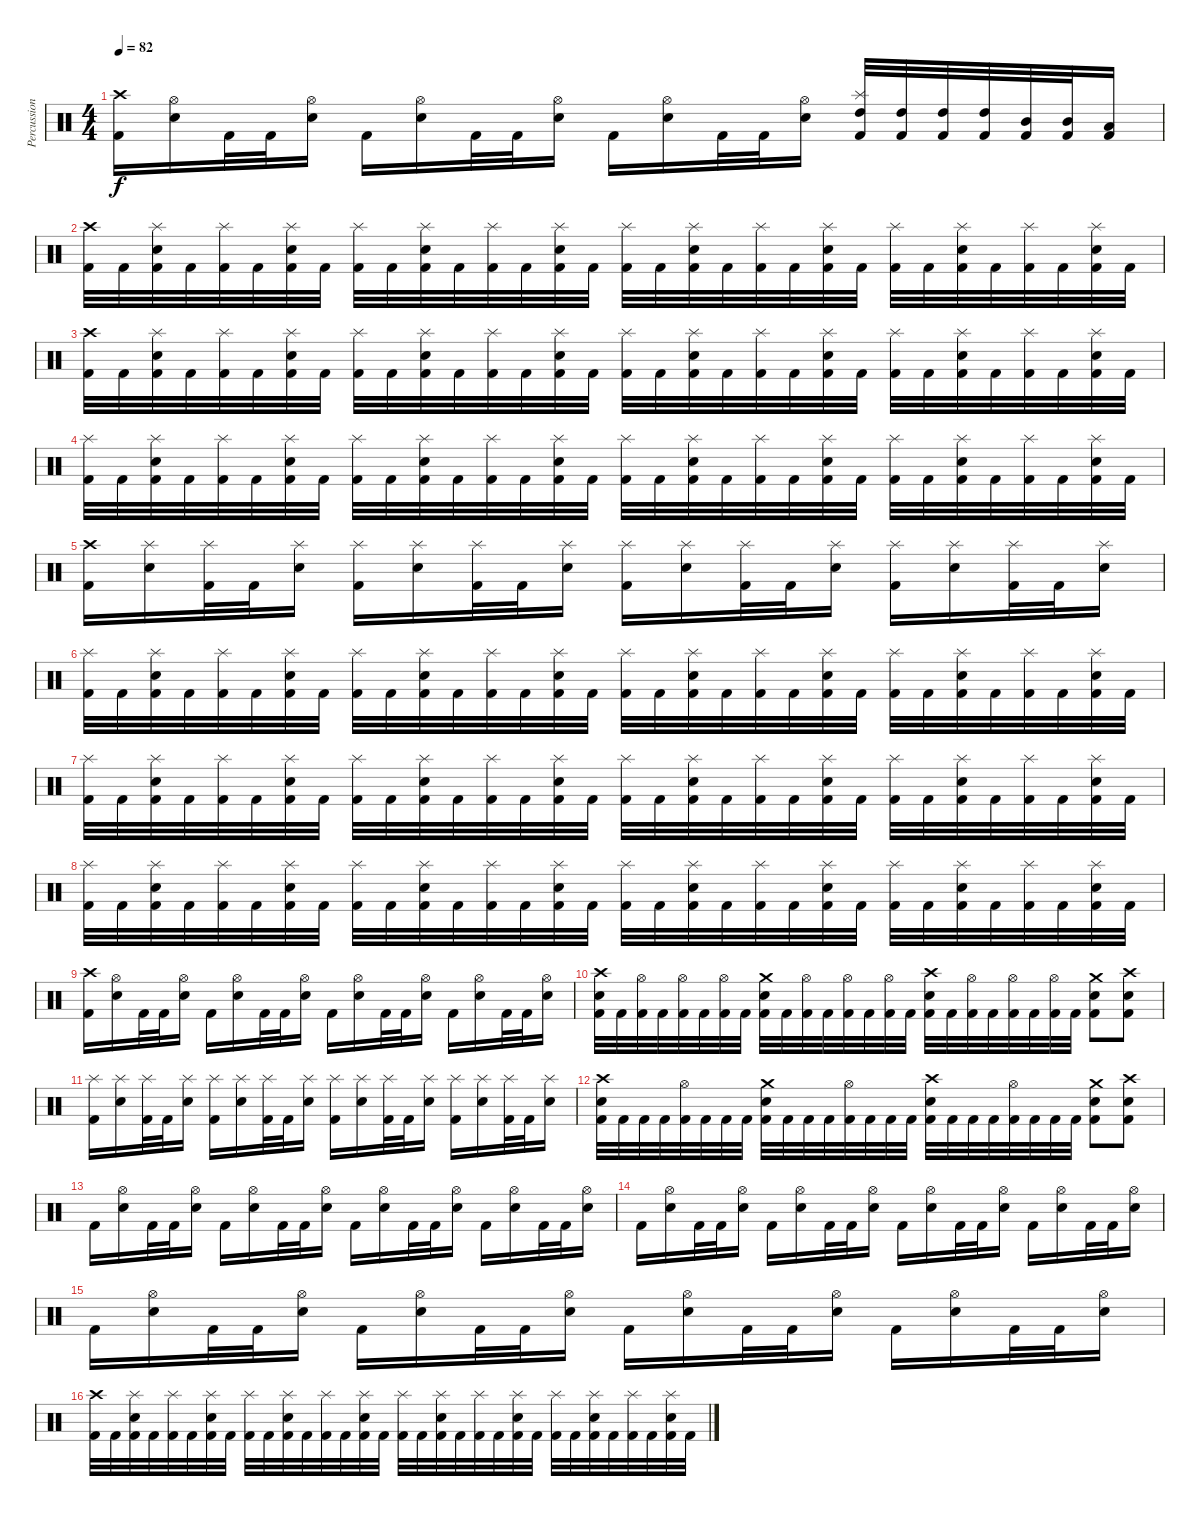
\track ("Percussion" "Percussion") {instrument percussion}
\staff {score}
\articulation defaults
\ts (4 4)
\tempo 82
\clef neutral
\ks c
("Crash high (hit)" "Kick (hit) 2").16{dy f} ("Hi-Hat (open)" "Electric Snare (hit)").16 "Kick (hit) 2".32 "Kick (hit) 2".32 ("Hi-Hat (open)" "Electric Snare (hit)").16 "Kick (hit) 2".16 ("Hi-Hat (open)" "Electric Snare (hit)").16 "Kick (hit) 2".32 "Kick (hit) 2".32 ("Hi-Hat (open)" "Electric Snare (hit)").16 "Kick (hit) 2".16 ("Hi-Hat (open)" "Electric Snare (hit)").16 "Kick (hit) 2".32 "Kick (hit) 2".32 ("Hi-Hat (open)" "Electric Snare (hit)").16 ("Splash (hit)" "High Tom (hit)" "Kick (hit) 2").32 ("High Tom (hit)" "Kick (hit) 2").32 ("High Tom (hit)" "Kick (hit) 2").32 ("High Tom (hit)" "Kick (hit) 2").32 ("Mid Tom (hit)" "Kick (hit) 2").32 ("Mid Tom (hit)" "Kick (hit) 2").32 ("Low Tom (hit)" "Kick (hit) 2").16 |
\section ("" "")
("Crash high (hit)" "Kick (hit) 2").32 "Kick (hit) 2".32 ("Splash (hit)" "Electric Snare (hit)" "Kick (hit) 2").32 "Kick (hit) 2".32 ("Splash (hit)" "Kick (hit) 2").32 "Kick (hit) 2".32 ("Splash (hit)" "Electric Snare (hit)" "Kick (hit) 2").32 "Kick (hit) 2".32 ("Splash (hit)" "Kick (hit) 2").32 "Kick (hit) 2".32 ("Splash (hit)" "Electric Snare (hit)" "Kick (hit) 2").32 "Kick (hit) 2".32 ("Splash (hit)" "Kick (hit) 2").32 "Kick (hit) 2".32 ("Splash (hit)" "Electric Snare (hit)" "Kick (hit) 2").32 "Kick (hit) 2".32 ("Splash (hit)" "Kick (hit) 2").32 "Kick (hit) 2".32 ("Splash (hit)" "Electric Snare (hit)" "Kick (hit) 2").32 "Kick (hit) 2".32 ("Splash (hit)" "Kick (hit) 2").32 "Kick (hit) 2".32 ("Splash (hit)" "Electric Snare (hit)" "Kick (hit) 2").32 "Kick (hit) 2".32 ("Splash (hit)" "Kick (hit) 2").32 "Kick (hit) 2".32 ("Splash (hit)" "Electric Snare (hit)" "Kick (hit) 2").32 "Kick (hit) 2".32 ("Splash (hit)" "Kick (hit) 2").32 "Kick (hit) 2".32 ("Splash (hit)" "Electric Snare (hit)" "Kick (hit) 2").32 "Kick (hit) 2".32 |
("Crash high (hit)" "Kick (hit) 2").32 "Kick (hit) 2".32 ("Splash (hit)" "Electric Snare (hit)" "Kick (hit) 2").32 "Kick (hit) 2".32 ("Splash (hit)" "Kick (hit) 2").32 "Kick (hit) 2".32 ("Splash (hit)" "Electric Snare (hit)" "Kick (hit) 2").32 "Kick (hit) 2".32 ("Splash (hit)" "Kick (hit) 2").32 "Kick (hit) 2".32 ("Splash (hit)" "Electric Snare (hit)" "Kick (hit) 2").32 "Kick (hit) 2".32 ("Splash (hit)" "Kick (hit) 2").32 "Kick (hit) 2".32 ("Splash (hit)" "Electric Snare (hit)" "Kick (hit) 2").32 "Kick (hit) 2".32 ("Splash (hit)" "Kick (hit) 2").32 "Kick (hit) 2".32 ("Splash (hit)" "Electric Snare (hit)" "Kick (hit) 2").32 "Kick (hit) 2".32 ("Splash (hit)" "Kick (hit) 2").32 "Kick (hit) 2".32 ("Splash (hit)" "Electric Snare (hit)" "Kick (hit) 2").32 "Kick (hit) 2".32 ("Splash (hit)" "Kick (hit) 2").32 "Kick (hit) 2".32 ("Splash (hit)" "Electric Snare (hit)" "Kick (hit) 2").32 "Kick (hit) 2".32 ("Splash (hit)" "Kick (hit) 2").32 "Kick (hit) 2".32 ("Splash (hit)" "Electric Snare (hit)" "Kick (hit) 2").32 "Kick (hit) 2".32 |
("Splash (hit)" "Kick (hit) 2").32 "Kick (hit) 2".32 ("Splash (hit)" "Electric Snare (hit)" "Kick (hit) 2").32 "Kick (hit) 2".32 ("Splash (hit)" "Kick (hit) 2").32 "Kick (hit) 2".32 ("Splash (hit)" "Electric Snare (hit)" "Kick (hit) 2").32 "Kick (hit) 2".32 ("Splash (hit)" "Kick (hit) 2").32 "Kick (hit) 2".32 ("Splash (hit)" "Electric Snare (hit)" "Kick (hit) 2").32 "Kick (hit) 2".32 ("Splash (hit)" "Kick (hit) 2").32 "Kick (hit) 2".32 ("Splash (hit)" "Electric Snare (hit)" "Kick (hit) 2").32 "Kick (hit) 2".32 ("Splash (hit)" "Kick (hit) 2").32 "Kick (hit) 2".32 ("Splash (hit)" "Electric Snare (hit)" "Kick (hit) 2").32 "Kick (hit) 2".32 ("Splash (hit)" "Kick (hit) 2").32 "Kick (hit) 2".32 ("Splash (hit)" "Electric Snare (hit)" "Kick (hit) 2").32 "Kick (hit) 2".32 ("Splash (hit)" "Kick (hit) 2").32 "Kick (hit) 2".32 ("Splash (hit)" "Electric Snare (hit)" "Kick (hit) 2").32 "Kick (hit) 2".32 ("Splash (hit)" "Kick (hit) 2").32 "Kick (hit) 2".32 ("Splash (hit)" "Electric Snare (hit)" "Kick (hit) 2").32 "Kick (hit) 2".32 |
("Crash high (hit)" "Kick (hit) 2").16 ("Splash (hit)" "Electric Snare (hit)").16 ("Splash (hit)" "Kick (hit) 2").32 "Kick (hit) 2".32 ("Splash (hit)" "Electric Snare (hit)").16 ("Splash (hit)" "Kick (hit) 2").16 ("Splash (hit)" "Electric Snare (hit)").16 ("Splash (hit)" "Kick (hit) 2").32 "Kick (hit) 2".32 ("Splash (hit)" "Electric Snare (hit)").16 ("Splash (hit)" "Kick (hit) 2").16 ("Splash (hit)" "Electric Snare (hit)").16 ("Splash (hit)" "Kick (hit) 2").32 "Kick (hit) 2".32 ("Splash (hit)" "Electric Snare (hit)").16 ("Splash (hit)" "Kick (hit) 2").16 ("Splash (hit)" "Electric Snare (hit)").16 ("Splash (hit)" "Kick (hit) 2").32 "Kick (hit) 2".32 ("Splash (hit)" "Electric Snare (hit)").16 |
\section ("" "")
("Splash (hit)" "Kick (hit) 2").32 "Kick (hit) 2".32 ("Splash (hit)" "Electric Snare (hit)" "Kick (hit) 2").32 "Kick (hit) 2".32 ("Splash (hit)" "Kick (hit) 2").32 "Kick (hit) 2".32 ("Splash (hit)" "Electric Snare (hit)" "Kick (hit) 2").32 "Kick (hit) 2".32 ("Splash (hit)" "Kick (hit) 2").32 "Kick (hit) 2".32 ("Splash (hit)" "Electric Snare (hit)" "Kick (hit) 2").32 "Kick (hit) 2".32 ("Splash (hit)" "Kick (hit) 2").32 "Kick (hit) 2".32 ("Splash (hit)" "Electric Snare (hit)" "Kick (hit) 2").32 "Kick (hit) 2".32 ("Splash (hit)" "Kick (hit) 2").32 "Kick (hit) 2".32 ("Splash (hit)" "Electric Snare (hit)" "Kick (hit) 2").32 "Kick (hit) 2".32 ("Splash (hit)" "Kick (hit) 2").32 "Kick (hit) 2".32 ("Splash (hit)" "Electric Snare (hit)" "Kick (hit) 2").32 "Kick (hit) 2".32 ("Splash (hit)" "Kick (hit) 2").32 "Kick (hit) 2".32 ("Splash (hit)" "Electric Snare (hit)" "Kick (hit) 2").32 "Kick (hit) 2".32 ("Splash (hit)" "Kick (hit) 2").32 "Kick (hit) 2".32 ("Splash (hit)" "Electric Snare (hit)" "Kick (hit) 2").32 "Kick (hit) 2".32 |
("Splash (hit)" "Kick (hit) 2").32 "Kick (hit) 2".32 ("Splash (hit)" "Electric Snare (hit)" "Kick (hit) 2").32 "Kick (hit) 2".32 ("Splash (hit)" "Kick (hit) 2").32 "Kick (hit) 2".32 ("Splash (hit)" "Electric Snare (hit)" "Kick (hit) 2").32 "Kick (hit) 2".32 ("Splash (hit)" "Kick (hit) 2").32 "Kick (hit) 2".32 ("Splash (hit)" "Electric Snare (hit)" "Kick (hit) 2").32 "Kick (hit) 2".32 ("Splash (hit)" "Kick (hit) 2").32 "Kick (hit) 2".32 ("Splash (hit)" "Electric Snare (hit)" "Kick (hit) 2").32 "Kick (hit) 2".32 ("Splash (hit)" "Kick (hit) 2").32 "Kick (hit) 2".32 ("Splash (hit)" "Electric Snare (hit)" "Kick (hit) 2").32 "Kick (hit) 2".32 ("Splash (hit)" "Kick (hit) 2").32 "Kick (hit) 2".32 ("Splash (hit)" "Electric Snare (hit)" "Kick (hit) 2").32 "Kick (hit) 2".32 ("Splash (hit)" "Kick (hit) 2").32 "Kick (hit) 2".32 ("Splash (hit)" "Electric Snare (hit)" "Kick (hit) 2").32 "Kick (hit) 2".32 ("Splash (hit)" "Kick (hit) 2").32 "Kick (hit) 2".32 ("Splash (hit)" "Electric Snare (hit)" "Kick (hit) 2").32 "Kick (hit) 2".32 |
("Splash (hit)" "Kick (hit) 2").32 "Kick (hit) 2".32 ("Splash (hit)" "Electric Snare (hit)" "Kick (hit) 2").32 "Kick (hit) 2".32 ("Splash (hit)" "Kick (hit) 2").32 "Kick (hit) 2".32 ("Splash (hit)" "Electric Snare (hit)" "Kick (hit) 2").32 "Kick (hit) 2".32 ("Splash (hit)" "Kick (hit) 2").32 "Kick (hit) 2".32 ("Splash (hit)" "Electric Snare (hit)" "Kick (hit) 2").32 "Kick (hit) 2".32 ("Splash (hit)" "Kick (hit) 2").32 "Kick (hit) 2".32 ("Splash (hit)" "Electric Snare (hit)" "Kick (hit) 2").32 "Kick (hit) 2".32 ("Splash (hit)" "Kick (hit) 2").32 "Kick (hit) 2".32 ("Splash (hit)" "Electric Snare (hit)" "Kick (hit) 2").32 "Kick (hit) 2".32 ("Splash (hit)" "Kick (hit) 2").32 "Kick (hit) 2".32 ("Splash (hit)" "Electric Snare (hit)" "Kick (hit) 2").32 "Kick (hit) 2".32 ("Splash (hit)" "Kick (hit) 2").32 "Kick (hit) 2".32 ("Splash (hit)" "Electric Snare (hit)" "Kick (hit) 2").32 "Kick (hit) 2".32 ("Splash (hit)" "Kick (hit) 2").32 "Kick (hit) 2".32 ("Splash (hit)" "Electric Snare (hit)" "Kick (hit) 2").32 "Kick (hit) 2".32 |
("Crash high (hit)" "Kick (hit) 2").16 ("Hi-Hat (open)" "Electric Snare (hit)").16 "Kick (hit) 2".32 "Kick (hit) 2".32 ("Hi-Hat (open)" "Electric Snare (hit)").16 "Kick (hit) 2".16 ("Hi-Hat (open)" "Electric Snare (hit)").16 "Kick (hit) 2".32 "Kick (hit) 2".32 ("Hi-Hat (open)" "Electric Snare (hit)").16 "Kick (hit) 2".16 ("Hi-Hat (open)" "Electric Snare (hit)").16 "Kick (hit) 2".32 "Kick (hit) 2".32 ("Hi-Hat (open)" "Electric Snare (hit)").16 "Kick (hit) 2".16 ("Hi-Hat (open)" "Electric Snare (hit)").16 "Kick (hit) 2".32 "Kick (hit) 2".32 ("Hi-Hat (open)" "Electric Snare (hit)").16 |
\section ("" "")
("Crash high (hit)" "Electric Snare (hit)" "Kick (hit) 2").32 "Kick (hit) 2".32 ("Hi-Hat (open)" "Kick (hit) 2").32 "Kick (hit) 2".32 ("Hi-Hat (open)" "Kick (hit) 2").32 "Kick (hit) 2".32 ("Hi-Hat (open)" "Kick (hit) 2").32 "Kick (hit) 2".32 ("Crash medium (hit)" "Electric Snare (hit)" "Kick (hit) 2").32 "Kick (hit) 2".32 ("Hi-Hat (open)" "Kick (hit) 2").32 "Kick (hit) 2".32 ("Hi-Hat (open)" "Kick (hit) 2").32 "Kick (hit) 2".32 ("Hi-Hat (open)" "Kick (hit) 2").32 "Kick (hit) 2".32 ("Crash high (hit)" "Electric Snare (hit)" "Kick (hit) 2").32 "Kick (hit) 2".32 ("Hi-Hat (open)" "Kick (hit) 2").32 "Kick (hit) 2".32 ("Hi-Hat (open)" "Kick (hit) 2").32 "Kick (hit) 2".32 ("Hi-Hat (open)" "Kick (hit) 2").32 "Kick (hit) 2".32 ("Crash medium (hit)" "Electric Snare (hit)" "Kick (hit) 2").8 ("Crash high (hit)" "Electric Snare (hit)" "Kick (hit) 2").8 |
("Splash (hit)" "Kick (hit) 2").16 ("Splash (hit)" "Electric Snare (hit)").16 ("Splash (hit)" "Kick (hit) 2").32 "Kick (hit) 2".32 ("Splash (hit)" "Electric Snare (hit)").16 ("Splash (hit)" "Kick (hit) 2").16 ("Splash (hit)" "Electric Snare (hit)").16 ("Splash (hit)" "Kick (hit) 2").32 "Kick (hit) 2".32 ("Splash (hit)" "Electric Snare (hit)").16 ("Splash (hit)" "Kick (hit) 2").16 ("Splash (hit)" "Electric Snare (hit)").16 ("Splash (hit)" "Kick (hit) 2").32 "Kick (hit) 2".32 ("Splash (hit)" "Electric Snare (hit)").16 ("Splash (hit)" "Kick (hit) 2").16 ("Splash (hit)" "Electric Snare (hit)").16 ("Splash (hit)" "Kick (hit) 2").32 "Kick (hit) 2".32 ("Splash (hit)" "Electric Snare (hit)").16 |
("Crash high (hit)" "Electric Snare (hit)" "Kick (hit) 2").32 "Kick (hit) 2".32 "Kick (hit) 2".32 "Kick (hit) 2".32 ("Hi-Hat (open)" "Kick (hit) 2").32 "Kick (hit) 2".32 "Kick (hit) 2".32 "Kick (hit) 2".32 ("Crash medium (hit)" "Electric Snare (hit)" "Kick (hit) 2").32 "Kick (hit) 2".32 "Kick (hit) 2".32 "Kick (hit) 2".32 ("Hi-Hat (open)" "Kick (hit) 2").32 "Kick (hit) 2".32 "Kick (hit) 2".32 "Kick (hit) 2".32 ("Crash high (hit)" "Electric Snare (hit)" "Kick (hit) 2").32 "Kick (hit) 2".32 "Kick (hit) 2".32 "Kick (hit) 2".32 ("Hi-Hat (open)" "Kick (hit) 2").32 "Kick (hit) 2".32 "Kick (hit) 2".32 "Kick (hit) 2".32 ("Crash medium (hit)" "Electric Snare (hit)" "Kick (hit) 2").8 ("Crash high (hit)" "Electric Snare (hit)" "Kick (hit) 2").8 |
"Kick (hit) 2".16 ("Hi-Hat (open)" "Electric Snare (hit)").16 "Kick (hit) 2".32 "Kick (hit) 2".32 ("Hi-Hat (open)" "Electric Snare (hit)").16 "Kick (hit) 2".16 ("Hi-Hat (open)" "Electric Snare (hit)").16 "Kick (hit) 2".32 "Kick (hit) 2".32 ("Hi-Hat (open)" "Electric Snare (hit)").16 "Kick (hit) 2".16 ("Hi-Hat (open)" "Electric Snare (hit)").16 "Kick (hit) 2".32 "Kick (hit) 2".32 ("Hi-Hat (open)" "Electric Snare (hit)").16 "Kick (hit) 2".16 ("Hi-Hat (open)" "Electric Snare (hit)").16 "Kick (hit) 2".32 "Kick (hit) 2".32 ("Hi-Hat (open)" "Electric Snare (hit)").16 |
\section ("" "")
"Kick (hit) 2".16 ("Hi-Hat (open)" "Electric Snare (hit)").16 "Kick (hit) 2".32 "Kick (hit) 2".32 ("Hi-Hat (open)" "Electric Snare (hit)").16 "Kick (hit) 2".16 ("Hi-Hat (open)" "Electric Snare (hit)").16 "Kick (hit) 2".32 "Kick (hit) 2".32 ("Hi-Hat (open)" "Electric Snare (hit)").16 "Kick (hit) 2".16 ("Hi-Hat (open)" "Electric Snare (hit)").16 "Kick (hit) 2".32 "Kick (hit) 2".32 ("Hi-Hat (open)" "Electric Snare (hit)").16 "Kick (hit) 2".16 ("Hi-Hat (open)" "Electric Snare (hit)").16 "Kick (hit) 2".32 "Kick (hit) 2".32 ("Hi-Hat (open)" "Electric Snare (hit)").16 |
"Kick (hit) 2".16 ("Hi-Hat (open)" "Electric Snare (hit)").16 "Kick (hit) 2".32 "Kick (hit) 2".32 ("Hi-Hat (open)" "Electric Snare (hit)").16 "Kick (hit) 2".16 ("Hi-Hat (open)" "Electric Snare (hit)").16 "Kick (hit) 2".32 "Kick (hit) 2".32 ("Hi-Hat (open)" "Electric Snare (hit)").16 "Kick (hit) 2".16 ("Hi-Hat (open)" "Electric Snare (hit)").16 "Kick (hit) 2".32 "Kick (hit) 2".32 ("Hi-Hat (open)" "Electric Snare (hit)").16 "Kick (hit) 2".16 ("Hi-Hat (open)" "Electric Snare (hit)").16 "Kick (hit) 2".32 "Kick (hit) 2".32 ("Hi-Hat (open)" "Electric Snare (hit)").16 |
("Crash high (hit)" "Kick (hit) 2").32 "Kick (hit) 2".32 ("Splash (hit)" "Electric Snare (hit)" "Kick (hit) 2").32 "Kick (hit) 2".32 ("Splash (hit)" "Kick (hit) 2").32 "Kick (hit) 2".32 ("Splash (hit)" "Electric Snare (hit)" "Kick (hit) 2").32 "Kick (hit) 2".32 ("Splash (hit)" "Kick (hit) 2").32 "Kick (hit) 2".32 ("Splash (hit)" "Electric Snare (hit)" "Kick (hit) 2").32 "Kick (hit) 2".32 ("Splash (hit)" "Kick (hit) 2").32 "Kick (hit) 2".32 ("Splash (hit)" "Electric Snare (hit)" "Kick (hit) 2").32 "Kick (hit) 2".32 ("Splash (hit)" "Kick (hit) 2").32 "Kick (hit) 2".32 ("Splash (hit)" "Electric Snare (hit)" "Kick (hit) 2").32 "Kick (hit) 2".32 ("Splash (hit)" "Kick (hit) 2").32 "Kick (hit) 2".32 ("Splash (hit)" "Electric Snare (hit)" "Kick (hit) 2").32 "Kick (hit) 2".32 ("Splash (hit)" "Kick (hit) 2").32 "Kick (hit) 2".32 ("Splash (hit)" "Electric Snare (hit)" "Kick (hit) 2").32 "Kick (hit) 2".32 ("Splash (hit)" "Kick (hit) 2").32 "Kick (hit) 2".32 ("Splash (hit)" "Electric Snare (hit)" "Kick (hit) 2").32 "Kick (hit) 2".32
